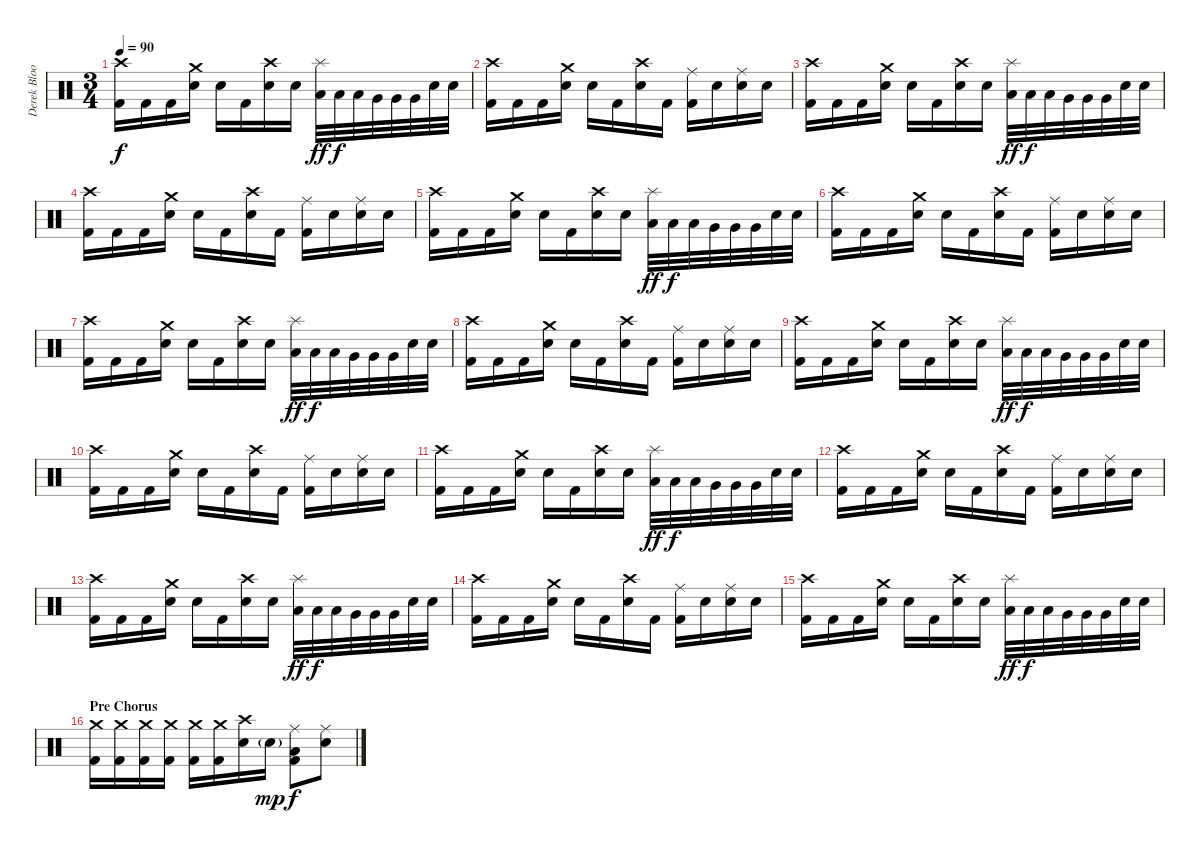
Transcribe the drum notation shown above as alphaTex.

\track ("Derek Bloom (Drums)" "Derek Bloo") {instrument percussion}
\staff {score}
\articulation defaults
\ts (3 4)
\tempo 90
\clef neutral
\ks c
("Crash high (hit)" "Kick (hit) 2").16{dy f} "Kick (hit) 2".16 "Kick (hit) 2".16 ("Crash medium (hit)" "Electric Snare (hit)").16 "Electric Snare (hit)".16 "Kick (hit) 2".16 ("Crash high (hit)" "Electric Snare (hit)").16 "Electric Snare (hit)".16 ("Splash (hit)" "Low Tom (hit)").32{dy ff} "Low Tom (hit)".32{dy f} "Low Tom (hit)".32 "Very Low Tom (hit)".32 "Very Low Tom (hit)".32 "Very Low Tom (hit)".32 "Electric Snare (hit)".32 "Electric Snare (hit)".32 |
("Crash high (hit)" "Kick (hit) 2").16 "Kick (hit) 2".16 "Kick (hit) 2".16 ("Crash medium (hit)" "Electric Snare (hit)").16 "Electric Snare (hit)".16 "Kick (hit) 2".16 ("Crash high (hit)" "Electric Snare (hit)").16 "Kick (hit) 2".16 ("Ride (middle)" "Kick (hit) 2").16 "Electric Snare (hit)".16 ("Ride (middle)" "Electric Snare (hit)").16 "Electric Snare (hit)".16 |
("Crash high (hit)" "Kick (hit) 2").16 "Kick (hit) 2".16 "Kick (hit) 2".16 ("Crash medium (hit)" "Electric Snare (hit)").16 "Electric Snare (hit)".16 "Kick (hit) 2".16 ("Crash high (hit)" "Electric Snare (hit)").16 "Electric Snare (hit)".16 ("Splash (hit)" "Low Tom (hit)").32{dy ff} "Low Tom (hit)".32{dy f} "Low Tom (hit)".32 "Very Low Tom (hit)".32 "Very Low Tom (hit)".32 "Very Low Tom (hit)".32 "Electric Snare (hit)".32 "Electric Snare (hit)".32 |
("Crash high (hit)" "Kick (hit) 2").16 "Kick (hit) 2".16 "Kick (hit) 2".16 ("Crash medium (hit)" "Electric Snare (hit)").16 "Electric Snare (hit)".16 "Kick (hit) 2".16 ("Crash high (hit)" "Electric Snare (hit)").16 "Kick (hit) 2".16 ("Ride (middle)" "Kick (hit) 2").16 "Electric Snare (hit)".16 ("Ride (middle)" "Electric Snare (hit)").16 "Electric Snare (hit)".16 |
("Crash high (hit)" "Kick (hit) 2").16 "Kick (hit) 2".16 "Kick (hit) 2".16 ("Crash medium (hit)" "Electric Snare (hit)").16 "Electric Snare (hit)".16 "Kick (hit) 2".16 ("Crash high (hit)" "Electric Snare (hit)").16 "Electric Snare (hit)".16 ("Splash (hit)" "Low Tom (hit)").32{dy ff} "Low Tom (hit)".32{dy f} "Low Tom (hit)".32 "Very Low Tom (hit)".32 "Very Low Tom (hit)".32 "Very Low Tom (hit)".32 "Electric Snare (hit)".32 "Electric Snare (hit)".32 |
("Crash high (hit)" "Kick (hit) 2").16 "Kick (hit) 2".16 "Kick (hit) 2".16 ("Crash medium (hit)" "Electric Snare (hit)").16 "Electric Snare (hit)".16 "Kick (hit) 2".16 ("Crash high (hit)" "Electric Snare (hit)").16 "Kick (hit) 2".16 ("Ride (middle)" "Kick (hit) 2").16 "Electric Snare (hit)".16 ("Ride (middle)" "Electric Snare (hit)").16 "Electric Snare (hit)".16 |
("Crash high (hit)" "Kick (hit) 2").16 "Kick (hit) 2".16 "Kick (hit) 2".16 ("Crash medium (hit)" "Electric Snare (hit)").16 "Electric Snare (hit)".16 "Kick (hit) 2".16 ("Crash high (hit)" "Electric Snare (hit)").16 "Electric Snare (hit)".16 ("Splash (hit)" "Low Tom (hit)").32{dy ff} "Low Tom (hit)".32{dy f} "Low Tom (hit)".32 "Very Low Tom (hit)".32 "Very Low Tom (hit)".32 "Very Low Tom (hit)".32 "Electric Snare (hit)".32 "Electric Snare (hit)".32 |
("Crash high (hit)" "Kick (hit) 2").16 "Kick (hit) 2".16 "Kick (hit) 2".16 ("Crash medium (hit)" "Electric Snare (hit)").16 "Electric Snare (hit)".16 "Kick (hit) 2".16 ("Crash high (hit)" "Electric Snare (hit)").16 "Kick (hit) 2".16 ("Ride (middle)" "Kick (hit) 2").16 "Electric Snare (hit)".16 ("Ride (middle)" "Electric Snare (hit)").16 "Electric Snare (hit)".16 |
("Crash high (hit)" "Kick (hit) 2").16 "Kick (hit) 2".16 "Kick (hit) 2".16 ("Crash medium (hit)" "Electric Snare (hit)").16 "Electric Snare (hit)".16 "Kick (hit) 2".16 ("Crash high (hit)" "Electric Snare (hit)").16 "Electric Snare (hit)".16 ("Splash (hit)" "Low Tom (hit)").32{dy ff} "Low Tom (hit)".32{dy f} "Low Tom (hit)".32 "Very Low Tom (hit)".32 "Very Low Tom (hit)".32 "Very Low Tom (hit)".32 "Electric Snare (hit)".32 "Electric Snare (hit)".32 |
("Crash high (hit)" "Kick (hit) 2").16 "Kick (hit) 2".16 "Kick (hit) 2".16 ("Crash medium (hit)" "Electric Snare (hit)").16 "Electric Snare (hit)".16 "Kick (hit) 2".16 ("Crash high (hit)" "Electric Snare (hit)").16 "Kick (hit) 2".16 ("Ride (middle)" "Kick (hit) 2").16 "Electric Snare (hit)".16 ("Ride (middle)" "Electric Snare (hit)").16 "Electric Snare (hit)".16 |
("Crash high (hit)" "Kick (hit) 2").16 "Kick (hit) 2".16 "Kick (hit) 2".16 ("Crash medium (hit)" "Electric Snare (hit)").16 "Electric Snare (hit)".16 "Kick (hit) 2".16 ("Crash high (hit)" "Electric Snare (hit)").16 "Electric Snare (hit)".16 ("Splash (hit)" "Low Tom (hit)").32{dy ff} "Low Tom (hit)".32{dy f} "Low Tom (hit)".32 "Very Low Tom (hit)".32 "Very Low Tom (hit)".32 "Very Low Tom (hit)".32 "Electric Snare (hit)".32 "Electric Snare (hit)".32 |
("Crash high (hit)" "Kick (hit) 2").16 "Kick (hit) 2".16 "Kick (hit) 2".16 ("Crash medium (hit)" "Electric Snare (hit)").16 "Electric Snare (hit)".16 "Kick (hit) 2".16 ("Crash high (hit)" "Electric Snare (hit)").16 "Kick (hit) 2".16 ("Ride (middle)" "Kick (hit) 2").16 "Electric Snare (hit)".16 ("Ride (middle)" "Electric Snare (hit)").16 "Electric Snare (hit)".16 |
("Crash high (hit)" "Kick (hit) 2").16 "Kick (hit) 2".16 "Kick (hit) 2".16 ("Crash medium (hit)" "Electric Snare (hit)").16 "Electric Snare (hit)".16 "Kick (hit) 2".16 ("Crash high (hit)" "Electric Snare (hit)").16 "Electric Snare (hit)".16 ("Splash (hit)" "Low Tom (hit)").32{dy ff} "Low Tom (hit)".32{dy f} "Low Tom (hit)".32 "Very Low Tom (hit)".32 "Very Low Tom (hit)".32 "Very Low Tom (hit)".32 "Electric Snare (hit)".32 "Electric Snare (hit)".32 |
("Crash high (hit)" "Kick (hit) 2").16 "Kick (hit) 2".16 "Kick (hit) 2".16 ("Crash medium (hit)" "Electric Snare (hit)").16 "Electric Snare (hit)".16 "Kick (hit) 2".16 ("Crash high (hit)" "Electric Snare (hit)").16 "Kick (hit) 2".16 ("Ride (middle)" "Kick (hit) 2").16 "Electric Snare (hit)".16 ("Ride (middle)" "Electric Snare (hit)").16 "Electric Snare (hit)".16 |
("Crash high (hit)" "Kick (hit) 2").16 "Kick (hit) 2".16 "Kick (hit) 2".16 ("Crash medium (hit)" "Electric Snare (hit)").16 "Electric Snare (hit)".16 "Kick (hit) 2".16 ("Crash high (hit)" "Electric Snare (hit)").16 "Electric Snare (hit)".16 ("Splash (hit)" "Low Tom (hit)").32{dy ff} "Low Tom (hit)".32{dy f} "Low Tom (hit)".32 "Very Low Tom (hit)".32 "Very Low Tom (hit)".32 "Very Low Tom (hit)".32 "Electric Snare (hit)".32 "Electric Snare (hit)".32 |
\section ("" "Pre Chorus")
("Crash medium (hit)" "Kick (hit) 2").16 ("Crash medium (hit)" "Kick (hit) 2").16 ("Crash medium (hit)" "Kick (hit) 2").16 ("Crash medium (hit)" "Kick (hit) 2").16 ("Crash medium (hit)" "Kick (hit) 2").16 ("Crash medium (hit)" "Kick (hit) 2").16 ("Crash high (hit)" "Electric Snare (hit)").16 "Electric Snare (hit)"{g}.16{dy mp} ("Ride (middle)" "Low Floor Tom (hit)" "Kick (hit) 2").8{dy f} ("Ride (middle)" "Electric Snare (hit)").8
